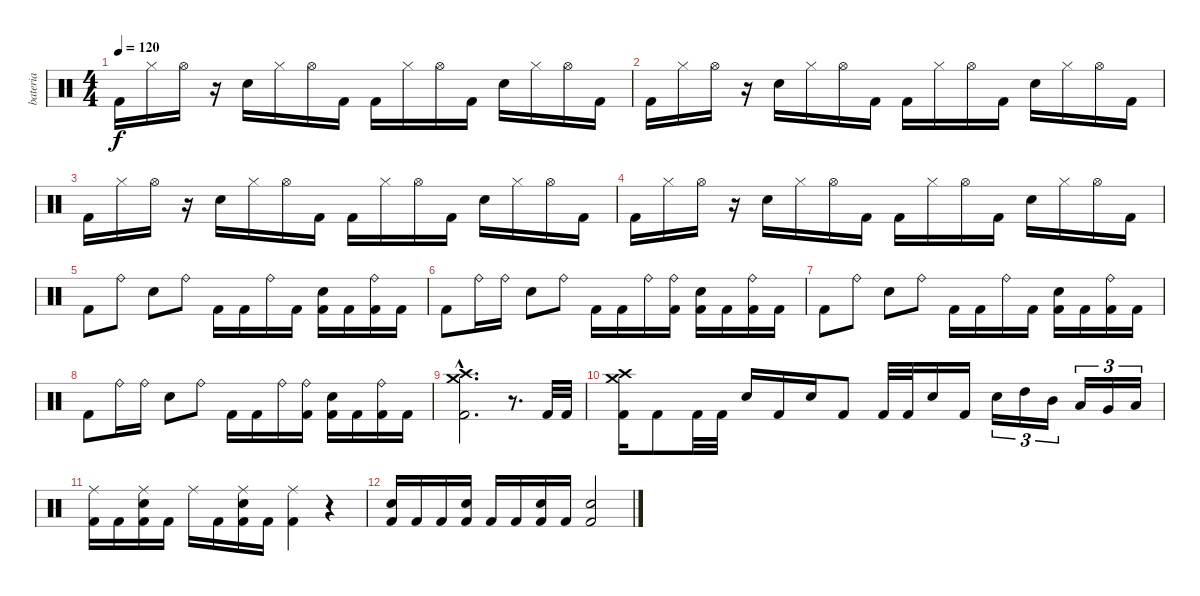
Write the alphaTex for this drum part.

\track ("bateria" "bateria") {instrument percussion}
\staff {score}
\articulation defaults
\ts (4 4)
\tempo 120
\clef neutral
\ks c "Kick (hit) 2".16{dy f} "Hi-Hat (closed)".16 "Hi-Hat (open)".16
r.16 "Electric Snare (hit)".16 "Hi-Hat (closed)".16 "Hi-Hat (open)".16 "Kick (hit) 2".16 "Kick (hit) 2".16 "Hi-Hat (closed)".16 "Hi-Hat (open)".16 "Kick (hit) 2".16 "Electric Snare (hit)".16 "Hi-Hat (closed)".16 "Hi-Hat (open)".16 "Kick (hit) 2".16 |
"Kick (hit) 2".16 "Hi-Hat (closed)".16 "Hi-Hat (open)".16 r.16 "Electric Snare (hit)".16 "Hi-Hat (closed)".16 "Hi-Hat (open)".16 "Kick (hit) 2".16 "Kick (hit) 2".16 "Hi-Hat (closed)".16 "Hi-Hat (open)".16 "Kick (hit) 2".16 "Electric Snare (hit)".16 "Hi-Hat (closed)".16 "Hi-Hat (open)".16 "Kick (hit) 2".16 |
"Kick (hit) 2".16 "Hi-Hat (closed)".16 "Hi-Hat (open)".16 r.16 "Electric Snare (hit)".16 "Hi-Hat (closed)".16 "Hi-Hat (open)".16 "Kick (hit) 2".16 "Kick (hit) 2".16 "Hi-Hat (closed)".16 "Hi-Hat (open)".16 "Kick (hit) 2".16 "Electric Snare (hit)".16 "Hi-Hat (closed)".16 "Hi-Hat (open)".16 "Kick (hit) 2".16 |
"Kick (hit) 2".16 "Hi-Hat (closed)".16 "Hi-Hat (open)".16 r.16 "Electric Snare (hit)".16 "Hi-Hat (closed)".16 "Hi-Hat (open)".16 "Kick (hit) 2".16 "Kick (hit) 2".16 "Hi-Hat (closed)".16 "Hi-Hat (open)".16 "Kick (hit) 2".16 "Electric Snare (hit)".16 "Hi-Hat (closed)".16 "Hi-Hat (open)".16 "Kick (hit) 2".16 |
"Kick (hit) 2".8 "Ride (bell)".8 "Electric Snare (hit)".8 "Ride (bell)".8 "Kick (hit) 2".16 "Kick (hit) 2".16 "Ride (bell)".16 "Kick (hit) 2".16 ("Electric Snare (hit)" "Kick (hit) 2").16 "Kick (hit) 2".16 ("Ride (bell)" "Kick (hit) 2").16 "Kick (hit) 2".16 |
"Kick (hit) 2".8 "Ride (bell)".16 "Ride (bell)".16 "Electric Snare (hit)".8 "Ride (bell)".8 "Kick (hit) 2".16 "Kick (hit) 2".16 "Ride (bell)".16 ("Ride (bell)" "Kick (hit) 2").16 ("Electric Snare (hit)" "Kick (hit) 2").16 "Kick (hit) 2".16 ("Ride (bell)" "Kick (hit) 2").16 "Kick (hit) 2".16 |
"Kick (hit) 2".8 "Ride (bell)".8 "Electric Snare (hit)".8 "Ride (bell)".8 "Kick (hit) 2".16 "Kick (hit) 2".16 "Ride (bell)".16 "Kick (hit) 2".16 ("Electric Snare (hit)" "Kick (hit) 2").16 "Kick (hit) 2".16 ("Ride (bell)" "Kick (hit) 2").16 "Kick (hit) 2".16 |
"Kick (hit) 2".8 "Ride (bell)".16 "Ride (bell)".16 "Electric Snare (hit)".8 "Ride (bell)".8 "Kick (hit) 2".16 "Kick (hit) 2".16 "Ride (bell)".16 ("Ride (bell)" "Kick (hit) 2").16 ("Electric Snare (hit)" "Kick (hit) 2").16 "Kick (hit) 2".16 ("Ride (bell)" "Kick (hit) 2").16 "Kick (hit) 2".16 |
("Crash medium (hit)"{hac} "Crash high (hit)"{hac} "Kick (hit) 2"{hac}).2{d} r.8{d} "Kick (hit) 2".32 "Kick (hit) 2".32 |
("Crash medium (hit)" "Crash high (hit)" "Kick (hit) 2").16 "Kick (hit) 2".8 "Kick (hit) 2".32 "Kick (hit) 2".32 "Electric Snare (hit)".16 "Kick (hit) 2".16 "Electric Snare (hit)".16 "Kick (hit) 2".8 "Kick (hit) 2".32 "Kick (hit) 2".32 "Electric Snare (hit)".16 "Kick (hit) 2".16 "Electric Snare (hit)".16{tu (3 2)} "High Tom (hit)".16{tu (3 2)} "Mid Tom (hit)".16{tu (3 2)} "Low Tom (hit)".16{tu (3 2)} "Very Low Tom (hit)".16{tu (3 2)} "Low Floor Tom (hit)".16{tu (3 2)} |
("Ride (middle)" "Kick (hit) 2").16 "Kick (hit) 2".16 ("Ride (middle)" "Electric Snare (hit)" "Kick (hit) 2").16 "Kick (hit) 2".16 "Ride (middle)".16 "Kick (hit) 2".16 ("Ride (middle)" "Electric Snare (hit)" "Kick (hit) 2").16 "Kick (hit) 2".16 ("Ride (middle)" "Kick (hit) 2").4 r.4 |
("Electric Snare (hit)" "Kick (hit) 2").16 "Kick (hit) 2".16 "Kick (hit) 2".16 ("Electric Snare (hit)" "Kick (hit) 2").16 "Kick (hit) 2".16 "Kick (hit) 2".16 ("Electric Snare (hit)" "Kick (hit) 2").16 "Kick (hit) 2".16 ("Electric Snare (hit)" "Kick (hit) 2").2
